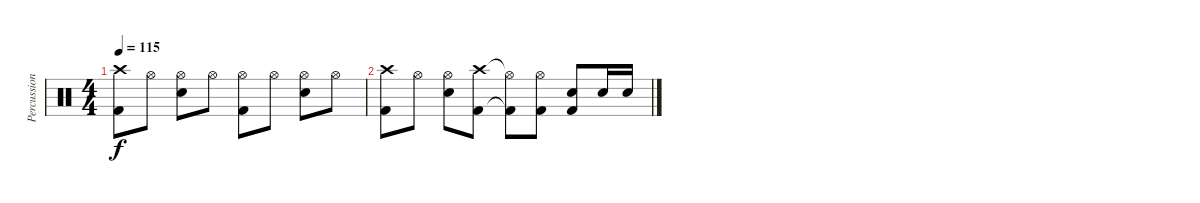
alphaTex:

\track ("Percussion" "Percussion") {instrument percussion}
\staff {score}
\articulation defaults
\ts (4 4)
\tempo 115
\clef neutral
\ks c
("Crash high (hit)" "Kick (hit) 2").8{dy f} "Hi-Hat (open)".8 ("Hi-Hat (open)" "Snare (hit) 2").8 "Hi-Hat (open)".8 ("Hi-Hat (open)" "Kick (hit) 2").8 "Hi-Hat (open)".8 ("Hi-Hat (open)" "Snare (hit) 2").8 "Hi-Hat (open)".8 |
("Crash high (hit)" "Kick (hit) 2").8 "Hi-Hat (open)".8 ("Hi-Hat (open)" "Snare (hit) 2").8 ("Crash high (hit)" "Kick (hit) 2").8 ("Hi-Hat (open)"{t} "Kick (hit) 2"{t}).8 ("Hi-Hat (open)" "Kick (hit) 2").8 ("Snare (hit) 2" "Kick (hit) 2").8 "Snare (hit) 2".16 "Snare (hit) 2".16
